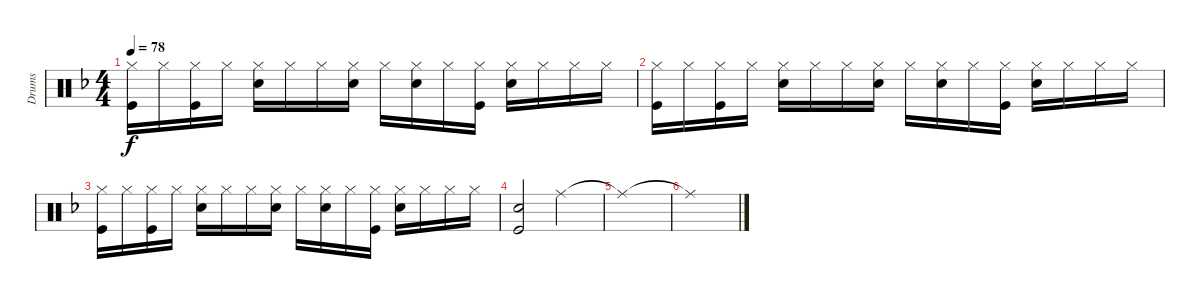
\track ("Drums" "Drums") {instrument percussion}
\staff {score}
\articulation defaults
\ts (4 4)
\tempo 78
\clef neutral
\ks dminor
("Hi-Hat (closed)" "Kick (hit)").16{dy f} "Hi-Hat (closed)".16 ("Hi-Hat (closed)" "Kick (hit)").16 "Hi-Hat (closed)".16 ("Hi-Hat (closed)" "Snare (hit) 2").16 "Hi-Hat (closed)".16 "Hi-Hat (closed)".16 ("Hi-Hat (closed)" "Snare (hit) 2").16 "Hi-Hat (closed)".16 ("Hi-Hat (closed)" "Snare (hit) 2").16 "Hi-Hat (closed)".16 ("Hi-Hat (closed)" "Kick (hit)").16 ("Hi-Hat (closed)" "Snare (hit) 2").16 "Hi-Hat (closed)".16 "Hi-Hat (closed)".16 "Hi-Hat (closed)".16 |
("Hi-Hat (closed)" "Kick (hit)").16 "Hi-Hat (closed)".16 ("Hi-Hat (closed)" "Kick (hit)").16 "Hi-Hat (closed)".16 ("Hi-Hat (closed)" "Snare (hit) 2").16 "Hi-Hat (closed)".16 "Hi-Hat (closed)".16 ("Hi-Hat (closed)" "Snare (hit) 2").16 "Hi-Hat (closed)".16 ("Hi-Hat (closed)" "Snare (hit) 2").16 "Hi-Hat (closed)".16 ("Hi-Hat (closed)" "Kick (hit)").16 ("Hi-Hat (closed)" "Snare (hit) 2").16 "Hi-Hat (closed)".16 "Hi-Hat (closed)".16 "Hi-Hat (closed)".16 |
("Hi-Hat (closed)" "Kick (hit)").16 "Hi-Hat (closed)".16 ("Hi-Hat (closed)" "Kick (hit)").16 "Hi-Hat (closed)".16 ("Hi-Hat (closed)" "Snare (hit) 2").16 "Hi-Hat (closed)".16 "Hi-Hat (closed)".16 ("Hi-Hat (closed)" "Snare (hit) 2").16 "Hi-Hat (closed)".16 ("Hi-Hat (closed)" "Snare (hit) 2").16 "Hi-Hat (closed)".16 ("Hi-Hat (closed)" "Kick (hit)").16 ("Hi-Hat (closed)" "Snare (hit) 2").16 "Hi-Hat (closed)".16 "Hi-Hat (closed)".16 "Hi-Hat (closed)".16 |
("Snare (hit) 2" "Kick (hit)").2 "Ride (middle)".2 |
"Ride (middle)"{t}.1 |
"Ride (middle)"{t}.1
